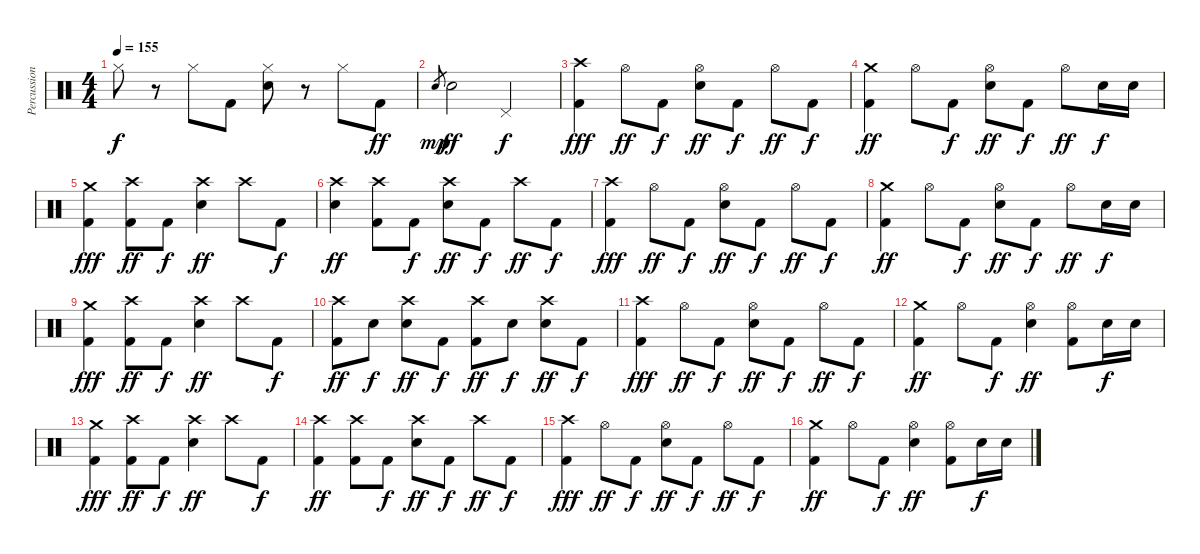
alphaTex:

\track ("Percussions" "Percussion") {instrument percussion}
\staff {score}
\articulation defaults
\ts (4 4)
\tempo 155
\clef neutral
\ks c "Hi-Hat (closed)".8{dy f}
r.8 "Hi-Hat (closed)".8 "Kick (hit) 2".8 ("Hi-Hat (closed)" "Electric Snare (hit)").8 r.8 "Hi-Hat (closed)".8 "Kick (hit) 2".8{dy ff} |
"Electric Snare (hit)".8{gr dy mp} "Electric Snare (hit)".2{dy ff} "Pedal Hi-Hat (hit)".2{dy f} |
("Crash high (hit)" "Kick (hit) 2").4{dy fff} "Hi-Hat (open)".8{dy ff} "Kick (hit) 2".8{dy f} ("Hi-Hat (open)" "Electric Snare (hit)").8{dy ff} "Kick (hit) 2".8{dy f} "Hi-Hat (open)".8{dy ff} "Kick (hit) 2".8{dy f} |
("Crash medium (hit)" "Kick (hit) 2").4{dy ff} "Hi-Hat (open)".8 "Kick (hit) 2".8{dy f} ("Hi-Hat (open)" "Electric Snare (hit)").8{dy ff} "Kick (hit) 2".8{dy f} "Hi-Hat (open)".8{dy ff} "Electric Snare (hit)".16{dy f} "Electric Snare (hit)".16 |
("Crash medium (hit)" "Kick (hit) 2").4{dy fff} ("Crash high (hit)" "Kick (hit) 2").8{dy ff} "Kick (hit) 2".8{dy f} ("Crash high (hit)" "Electric Snare (hit)").4{dy ff} "Crash high (hit)".8 "Kick (hit) 2".8{dy f} |
("Crash high (hit)" "Electric Snare (hit)").4{dy ff} ("Crash high (hit)" "Kick (hit) 2").8 "Kick (hit) 2".8{dy f} ("Crash high (hit)" "Electric Snare (hit)").8{dy ff} "Kick (hit) 2".8{dy f} "Crash high (hit)".8{dy ff} "Kick (hit) 2".8{dy f} |
("Crash high (hit)" "Kick (hit) 2").4{dy fff} "Hi-Hat (open)".8{dy ff} "Kick (hit) 2".8{dy f} ("Hi-Hat (open)" "Electric Snare (hit)").8{dy ff} "Kick (hit) 2".8{dy f} "Hi-Hat (open)".8{dy ff} "Kick (hit) 2".8{dy f} |
("Crash medium (hit)" "Kick (hit) 2").4{dy ff} "Hi-Hat (open)".8 "Kick (hit) 2".8{dy f} ("Hi-Hat (open)" "Electric Snare (hit)").8{dy ff} "Kick (hit) 2".8{dy f} "Hi-Hat (open)".8{dy ff} "Electric Snare (hit)".16{dy f} "Electric Snare (hit)".16 |
("Crash medium (hit)" "Kick (hit) 2").4{dy fff} ("Crash high (hit)" "Kick (hit) 2").8{dy ff} "Kick (hit) 2".8{dy f} ("Crash high (hit)" "Electric Snare (hit)").4{dy ff} "Crash high (hit)".8 "Kick (hit) 2".8{dy f} |
("Crash high (hit)" "Kick (hit) 2").8{dy ff} "Electric Snare (hit)".8{dy f} ("Crash high (hit)" "Electric Snare (hit)").8{dy ff} "Kick (hit) 2".8{dy f} ("Crash high (hit)" "Kick (hit) 2").8{dy ff} "Electric Snare (hit)".8{dy f} ("Crash high (hit)" "Electric Snare (hit)").8{dy ff} "Kick (hit) 2".8{dy f} |
("Crash high (hit)" "Kick (hit) 2").4{dy fff} "Hi-Hat (open)".8{dy ff} "Kick (hit) 2".8{dy f} ("Hi-Hat (open)" "Electric Snare (hit)").8{dy ff} "Kick (hit) 2".8{dy f} "Hi-Hat (open)".8{dy ff} "Kick (hit) 2".8{dy f} |
("Crash medium (hit)" "Kick (hit) 2").4{dy ff} "Hi-Hat (open)".8 "Kick (hit) 2".8{dy f} ("Hi-Hat (open)" "Electric Snare (hit)").4{dy ff} ("Hi-Hat (open)" "Kick (hit) 2").8 "Electric Snare (hit)".16{dy f} "Electric Snare (hit)".16 |
("Crash medium (hit)" "Kick (hit) 2").4{dy fff} ("Crash high (hit)" "Kick (hit) 2").8{dy ff} "Kick (hit) 2".8{dy f} ("Crash high (hit)" "Electric Snare (hit)").4{dy ff} "Crash high (hit)".8 "Kick (hit) 2".8{dy f} |
("Crash high (hit)" "Kick (hit) 2").4{dy ff} ("Crash high (hit)" "Kick (hit) 2").8 "Kick (hit) 2".8{dy f} ("Crash high (hit)" "Electric Snare (hit)").8{dy ff} "Kick (hit) 2".8{dy f} "Crash high (hit)".8{dy ff} "Kick (hit) 2".8{dy f} |
("Crash high (hit)" "Kick (hit) 2").4{dy fff} "Hi-Hat (open)".8{dy ff} "Kick (hit) 2".8{dy f} ("Hi-Hat (open)" "Electric Snare (hit)").8{dy ff} "Kick (hit) 2".8{dy f} "Hi-Hat (open)".8{dy ff} "Kick (hit) 2".8{dy f} |
("Crash medium (hit)" "Kick (hit) 2").4{dy ff} "Hi-Hat (open)".8 "Kick (hit) 2".8{dy f} ("Hi-Hat (open)" "Electric Snare (hit)").4{dy ff} ("Hi-Hat (open)" "Kick (hit) 2").8 "Electric Snare (hit)".16{dy f} "Electric Snare (hit)".16
